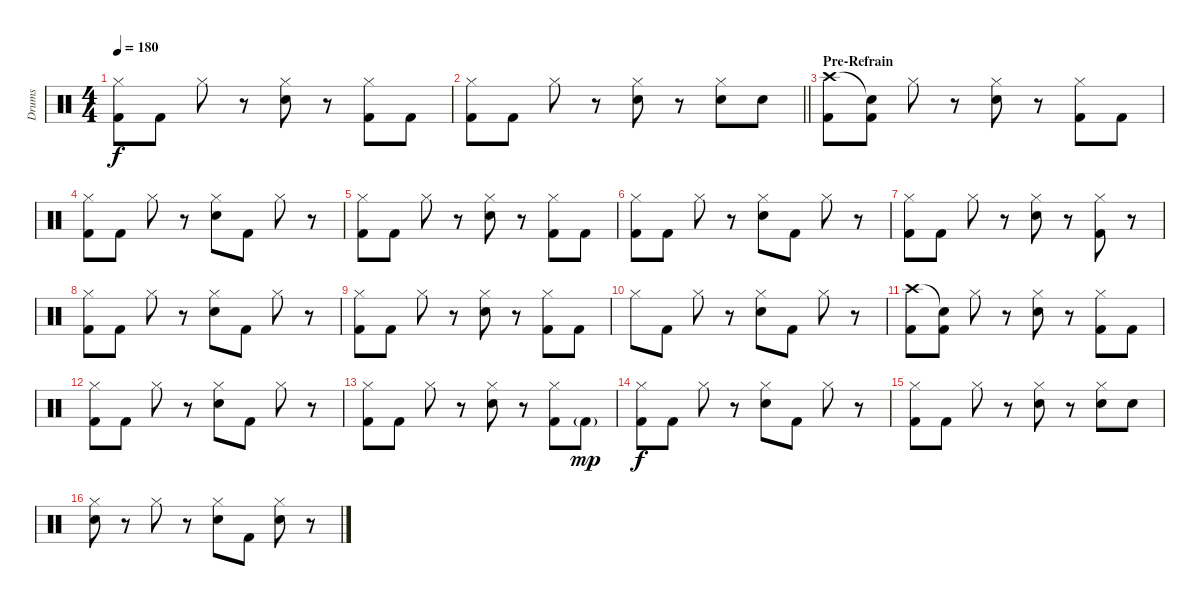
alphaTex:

\track ("Drums" "Drums") {instrument percussion}
\staff {score}
\articulation defaults
\ts (4 4)
\tempo 180
\clef neutral
\ks c
("Hi-Hat (closed)" "Kick (hit) 2").8{dy f} "Kick (hit) 2".8 "Hi-Hat (closed)".8 r.8 ("Hi-Hat (closed)" "Snare (hit) 2").8 r.8 ("Hi-Hat (closed)" "Kick (hit) 2").8 "Kick (hit) 2".8 |
\barLineRight lightlight
("Hi-Hat (closed)" "Kick (hit) 2").8 "Kick (hit) 2".8 "Hi-Hat (closed)".8 r.8 ("Hi-Hat (closed)" "Snare (hit) 2").8 r.8 ("Hi-Hat (closed)" "Snare (hit) 2").8 "Snare (hit) 2".8 |
\section ("" "Pre-Refrain")
("Crash high (hit)" "Kick (hit) 2").8 ("Snare (hit)"{t} "Kick (hit) 2").8 "Hi-Hat (closed)".8 r.8 ("Hi-Hat (closed)" "Snare (hit) 2").8 r.8 ("Hi-Hat (closed)" "Kick (hit) 2").8 "Kick (hit) 2".8 |
("Hi-Hat (closed)" "Kick (hit) 2").8 "Kick (hit) 2".8 "Hi-Hat (closed)".8 r.8 ("Hi-Hat (closed)" "Snare (hit) 2").8 "Kick (hit) 2".8 "Hi-Hat (closed)".8 r.8 |
("Hi-Hat (closed)" "Kick (hit) 2").8 "Kick (hit) 2".8 "Hi-Hat (closed)".8 r.8 ("Hi-Hat (closed)" "Snare (hit) 2").8 r.8 ("Hi-Hat (closed)" "Kick (hit) 2").8 "Kick (hit) 2".8 |
("Hi-Hat (closed)" "Kick (hit) 2").8 "Kick (hit) 2".8 "Hi-Hat (closed)".8 r.8 ("Hi-Hat (closed)" "Snare (hit) 2").8 "Kick (hit) 2".8 "Hi-Hat (closed)".8 r.8 |
("Hi-Hat (closed)" "Kick (hit) 2").8 "Kick (hit) 2".8 "Hi-Hat (closed)".8 r.8 ("Hi-Hat (closed)" "Snare (hit) 2").8 r.8 ("Hi-Hat (closed)" "Kick (hit) 2").8 r.8 |
("Hi-Hat (closed)" "Kick (hit) 2").8 "Kick (hit) 2".8 "Hi-Hat (closed)".8 r.8 ("Hi-Hat (closed)" "Snare (hit) 2").8 "Kick (hit) 2".8 "Hi-Hat (closed)".8 r.8 |
("Hi-Hat (closed)" "Kick (hit) 2").8 "Kick (hit) 2".8 "Hi-Hat (closed)".8 r.8 ("Hi-Hat (closed)" "Snare (hit) 2").8 r.8 ("Hi-Hat (closed)" "Kick (hit) 2").8 "Kick (hit) 2".8 |
"Hi-Hat (closed)".8 "Kick (hit) 2".8 "Hi-Hat (closed)".8 r.8 ("Hi-Hat (closed)" "Snare (hit) 2").8 "Kick (hit) 2".8 "Hi-Hat (closed)".8 r.8 |
("Crash high (hit)" "Kick (hit) 2").8 ("Snare (hit)"{t} "Kick (hit) 2").8 "Hi-Hat (closed)".8 r.8 ("Hi-Hat (closed)" "Snare (hit) 2").8 r.8 ("Hi-Hat (closed)" "Kick (hit) 2").8 "Kick (hit) 2".8 |
("Hi-Hat (closed)" "Kick (hit) 2").8 "Kick (hit) 2".8 "Hi-Hat (closed)".8 r.8 ("Hi-Hat (closed)" "Snare (hit) 2").8 "Kick (hit) 2".8 "Hi-Hat (closed)".8 r.8 |
("Hi-Hat (closed)" "Kick (hit) 2").8 "Kick (hit) 2".8 "Hi-Hat (closed)".8 r.8 ("Hi-Hat (closed)" "Snare (hit) 2").8 r.8 ("Hi-Hat (closed)" "Kick (hit) 2").8 "Kick (hit) 2"{g}.8{dy mp} |
("Hi-Hat (closed)" "Kick (hit) 2").8{dy f} "Kick (hit) 2".8 "Hi-Hat (closed)".8 r.8 ("Hi-Hat (closed)" "Snare (hit) 2").8 "Kick (hit) 2".8 "Hi-Hat (closed)".8 r.8 |
("Hi-Hat (closed)" "Kick (hit) 2").8 "Kick (hit) 2".8 "Hi-Hat (closed)".8 r.8 ("Hi-Hat (closed)" "Snare (hit) 2").8 r.8 ("Hi-Hat (closed)" "Snare (hit) 2").8 "Snare (hit) 2".8 |
("Hi-Hat (closed)" "Snare (hit) 2").8 r.8 "Hi-Hat (closed)".8 r.8 ("Hi-Hat (closed)" "Snare (hit) 2").8 "Kick (hit) 2".8 ("Hi-Hat (closed)" "Snare (hit) 2").8 r.8
